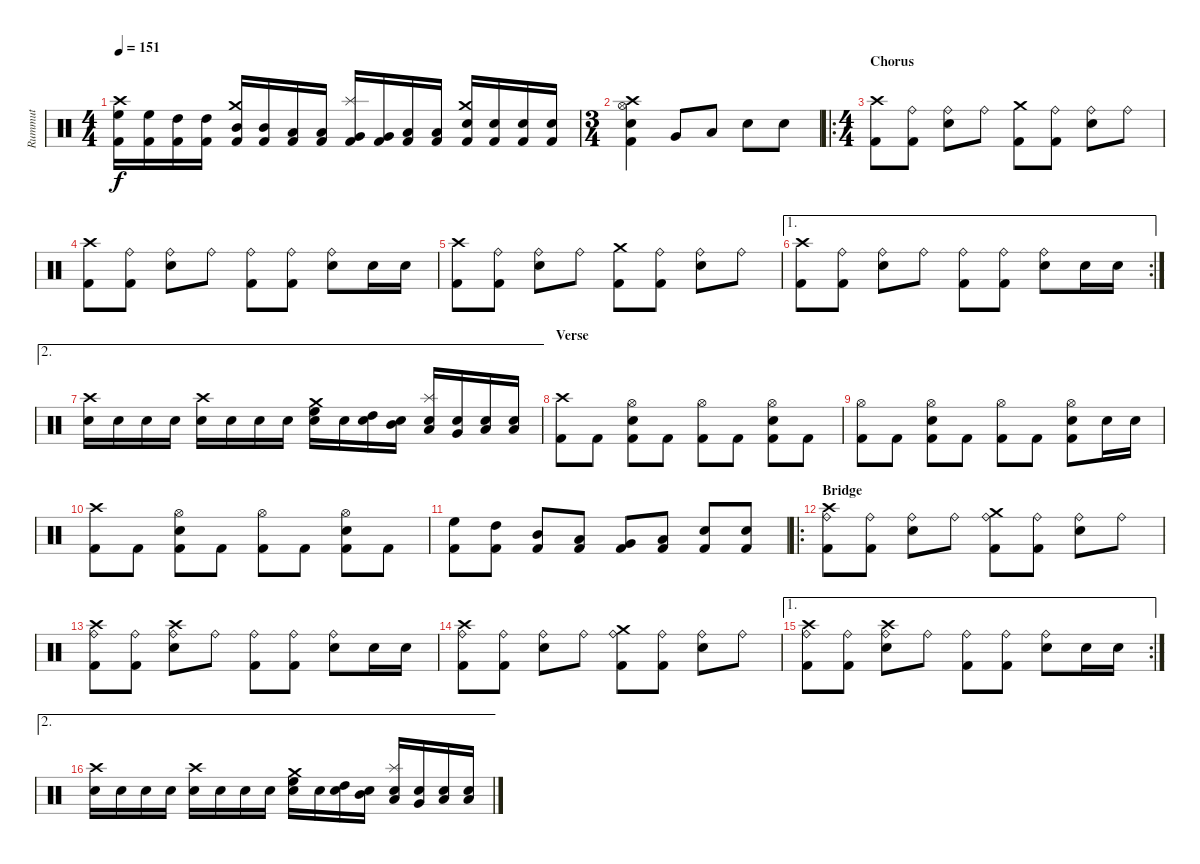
\track ("Rummut" "Rummut") {instrument percussion}
\staff {score}
\articulation defaults
\ts (4 4)
\tempo 151
\clef neutral
\ks c
("Crash high (hit)" "High Floor Tom (hit)" "Kick (hit) 2").16{dy f} ("High Floor Tom (hit)" "Kick (hit) 2").16 ("High Tom (hit)" "Kick (hit) 2").16 ("High Tom (hit)" "Kick (hit) 2").16 ("Crash medium (hit)" "Mid Tom (hit)" "Kick (hit) 2").16 ("Mid Tom (hit)" "Kick (hit) 2").16 ("Low Tom (hit)" "Kick (hit) 2").16 ("Low Tom (hit)" "Kick (hit) 2").16 ("Splash (hit)" "Very Low Tom (hit)" "Kick (hit) 2").16 ("Very Low Tom (hit)" "Kick (hit) 2").16 ("Low Floor Tom (hit)" "Kick (hit) 2").16 ("Low Floor Tom (hit)" "Kick (hit) 2").16 ("Crash medium (hit)" "Electric Snare (hit)" "Kick (hit) 2").16 ("Electric Snare (hit)" "Kick (hit) 2").16 ("Electric Snare (hit)" "Kick (hit) 2").16 ("Electric Snare (hit)" "Kick (hit) 2").16 |
\ts (3 4)
("Crash high (hit)" "Hi-Hat (open)" "Electric Snare (hit)" "Kick (hit) 2").4 "Very Low Tom (hit)".8 "Low Floor Tom (hit)".8 "Electric Snare (hit)".8 "Electric Snare (hit)".8 |
\ro
\ts (4 4)
\section ("" "Chorus")
("Crash high (hit)" "Kick (hit) 2").8 ("Ride (bell)" "Kick (hit) 2").8 ("Ride (bell)" "Electric Snare (hit)").8 "Ride (bell)".8 ("Crash medium (hit)" "Kick (hit) 2").8 ("Ride (bell)" "Kick (hit) 2").8 ("Ride (bell)" "Electric Snare (hit)").8 "Ride (bell)".8 |
("Crash high (hit)" "Kick (hit) 2").8 ("Ride (bell)" "Kick (hit) 2").8 ("Ride (bell)" "Electric Snare (hit)").8 "Ride (bell)".8 ("Ride (bell)" "Kick (hit) 2").8 ("Ride (bell)" "Kick (hit) 2").8 ("Ride (bell)" "Electric Snare (hit)").8 "Electric Snare (hit)".16 "Electric Snare (hit)".16 |
("Crash high (hit)" "Kick (hit) 2").8 ("Ride (bell)" "Kick (hit) 2").8 ("Ride (bell)" "Electric Snare (hit)").8 "Ride (bell)".8 ("Crash medium (hit)" "Kick (hit) 2").8 ("Ride (bell)" "Kick (hit) 2").8 ("Ride (bell)" "Electric Snare (hit)").8 "Ride (bell)".8 |
\ae 1
\rc 2
("Crash high (hit)" "Kick (hit) 2").8 ("Ride (bell)" "Kick (hit) 2").8 ("Ride (bell)" "Electric Snare (hit)").8 "Ride (bell)".8 ("Ride (bell)" "Kick (hit) 2").8 ("Ride (bell)" "Kick (hit) 2").8 ("Ride (bell)" "Electric Snare (hit)").8 "Electric Snare (hit)".16 "Electric Snare (hit)".16 |
\ae 2
("Crash high (hit)" "Electric Snare (hit)").16 "Electric Snare (hit)".16 "Electric Snare (hit)".16 "Electric Snare (hit)".16 ("Crash high (hit)" "Electric Snare (hit)").16 "Electric Snare (hit)".16 "Electric Snare (hit)".16 "Electric Snare (hit)".16 ("Crash medium (hit)" "High Floor Tom (hit)" "Electric Snare (hit)").16 "Electric Snare (hit)".16 ("High Tom (hit)" "Electric Snare (hit)").16 ("Mid Tom (hit)" "Electric Snare (hit)").16 ("Splash (hit)" "Low Tom (hit)" "Electric Snare (hit)").16 ("Very Low Tom (hit)" "Electric Snare (hit)").16 ("Low Floor Tom (hit)" "Electric Snare (hit)").16 ("Low Floor Tom (hit)" "Electric Snare (hit)").16 |
\section ("" "Verse")
("Crash high (hit)" "Kick (hit) 2").8 "Kick (hit) 2".8 ("Hi-Hat (open)" "Electric Snare (hit)" "Kick (hit) 2").8 "Kick (hit) 2".8 ("Hi-Hat (open)" "Kick (hit) 2").8 "Kick (hit) 2".8 ("Hi-Hat (open)" "Electric Snare (hit)" "Kick (hit) 2").8 "Kick (hit) 2".8 |
("Hi-Hat (open)" "Kick (hit) 2").8 "Kick (hit) 2".8 ("Hi-Hat (open)" "Electric Snare (hit)" "Kick (hit) 2").8 "Kick (hit) 2".8 ("Hi-Hat (open)" "Kick (hit) 2").8 "Kick (hit) 2".8 ("Hi-Hat (open)" "Electric Snare (hit)" "Kick (hit) 2").8 "Electric Snare (hit)".16 "Electric Snare (hit)".16 |
("Crash high (hit)" "Kick (hit) 2").8 "Kick (hit) 2".8 ("Hi-Hat (open)" "Electric Snare (hit)" "Kick (hit) 2").8 "Kick (hit) 2".8 ("Hi-Hat (open)" "Kick (hit) 2").8 "Kick (hit) 2".8 ("Hi-Hat (open)" "Electric Snare (hit)" "Kick (hit) 2").8 "Kick (hit) 2".8 |
("High Floor Tom (hit)" "Kick (hit) 2").8 ("High Tom (hit)" "Kick (hit) 2").8 ("Mid Tom (hit)" "Kick (hit) 2").8 ("Low Tom (hit)" "Kick (hit) 2").8 ("Very Low Tom (hit)" "Kick (hit) 2").8 ("Low Floor Tom (hit)" "Kick (hit) 2").8 ("Electric Snare (hit)" "Kick (hit) 2").8 ("Electric Snare (hit)" "Kick (hit) 2").8 |
\ro
\section ("" "Bridge")
("Crash high (hit)" "Ride (bell)" "Kick (hit) 2").8 ("Ride (bell)" "Kick (hit) 2").8 ("Ride (bell)" "Electric Snare (hit)").8 "Ride (bell)".8 ("Crash medium (hit)" "Ride (bell)" "Kick (hit) 2").8 ("Ride (bell)" "Kick (hit) 2").8 ("Ride (bell)" "Electric Snare (hit)").8 "Ride (bell)".8 |
("Crash high (hit)" "Ride (bell)" "Kick (hit) 2").8 ("Ride (bell)" "Kick (hit) 2").8 ("Crash high (hit)" "Ride (bell)" "Electric Snare (hit)").8 "Ride (bell)".8 ("Ride (bell)" "Kick (hit) 2").8 ("Ride (bell)" "Kick (hit) 2").8 ("Ride (bell)" "Electric Snare (hit)").8 "Electric Snare (hit)".16 "Electric Snare (hit)".16 |
("Crash high (hit)" "Ride (bell)" "Kick (hit) 2").8 ("Ride (bell)" "Kick (hit) 2").8 ("Ride (bell)" "Electric Snare (hit)").8 "Ride (bell)".8 ("Crash medium (hit)" "Ride (bell)" "Kick (hit) 2").8 ("Ride (bell)" "Kick (hit) 2").8 ("Ride (bell)" "Electric Snare (hit)").8 "Ride (bell)".8 |
\ae 1
\rc 2
("Crash high (hit)" "Ride (bell)" "Kick (hit) 2").8 ("Ride (bell)" "Kick (hit) 2").8 ("Crash high (hit)" "Ride (bell)" "Electric Snare (hit)").8 "Ride (bell)".8 ("Ride (bell)" "Kick (hit) 2").8 ("Ride (bell)" "Kick (hit) 2").8 ("Ride (bell)" "Electric Snare (hit)").8 "Electric Snare (hit)".16 "Electric Snare (hit)".16 |
\ae 2
("Crash high (hit)" "Electric Snare (hit)").16 "Electric Snare (hit)".16 "Electric Snare (hit)".16 "Electric Snare (hit)".16 ("Crash high (hit)" "Electric Snare (hit)").16 "Electric Snare (hit)".16 "Electric Snare (hit)".16 "Electric Snare (hit)".16 ("Crash medium (hit)" "High Floor Tom (hit)" "Electric Snare (hit)").16 "Electric Snare (hit)".16 ("High Tom (hit)" "Electric Snare (hit)").16 ("Mid Tom (hit)" "Electric Snare (hit)").16 ("Splash (hit)" "Low Tom (hit)" "Electric Snare (hit)").16 ("Very Low Tom (hit)" "Electric Snare (hit)").16 ("Low Floor Tom (hit)" "Electric Snare (hit)").16 ("Low Floor Tom (hit)" "Electric Snare (hit)").16
